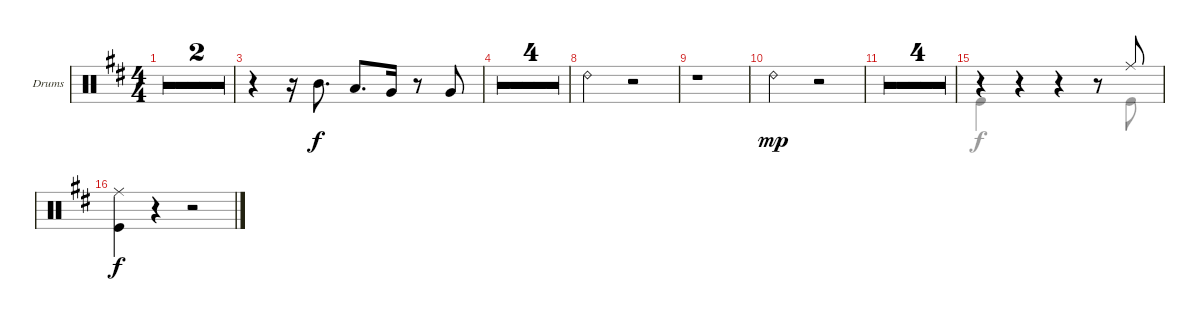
\defaultSystemsLayout 4
\bracketExtendMode groupsimilarinstruments
\firstSystemTrackNameOrientation horizontal
\otherSystemsTrackNameOrientation horizontal
\track ("Drumkit" "Drums") {multiBarRest instrument percussion}
\staff {score}
\articulation defaults
\voice
\ts (4 4)
\tempo 84
\clef neutral
\ks bminor
r.1{dy f} |
r.1 |
r.4 r.16 "Mid Tom (hit)".8{d} "Low Tom (hit)".8{d} "Very Low Tom (hit)".16 r.8 "Very Low Tom (hit)".8 |
r.1 |
r.1 |
r.1 |
r.1 |
"Ride (bell) 2".2 r.2 |
r.1 |
"Ride (bell) 2".2{dy mp} r.2 |
r.2 r.2 |
r.1 |
r.1 |
r.1 |
r.4 r.4 r.4 r.8 "Ride (middle)".8 |
("Ride (middle)" "Kick (hit)").4{dy f} r.4 r.2
\voice
\clef neutral
\ottava regular
\simile none
\ks bminor
|
|
|
|
|
|
|
|
|
|
|
|
|
|
"Kick (hit)".4 r.4 r.4 r.8 "Kick (hit)".8 |
